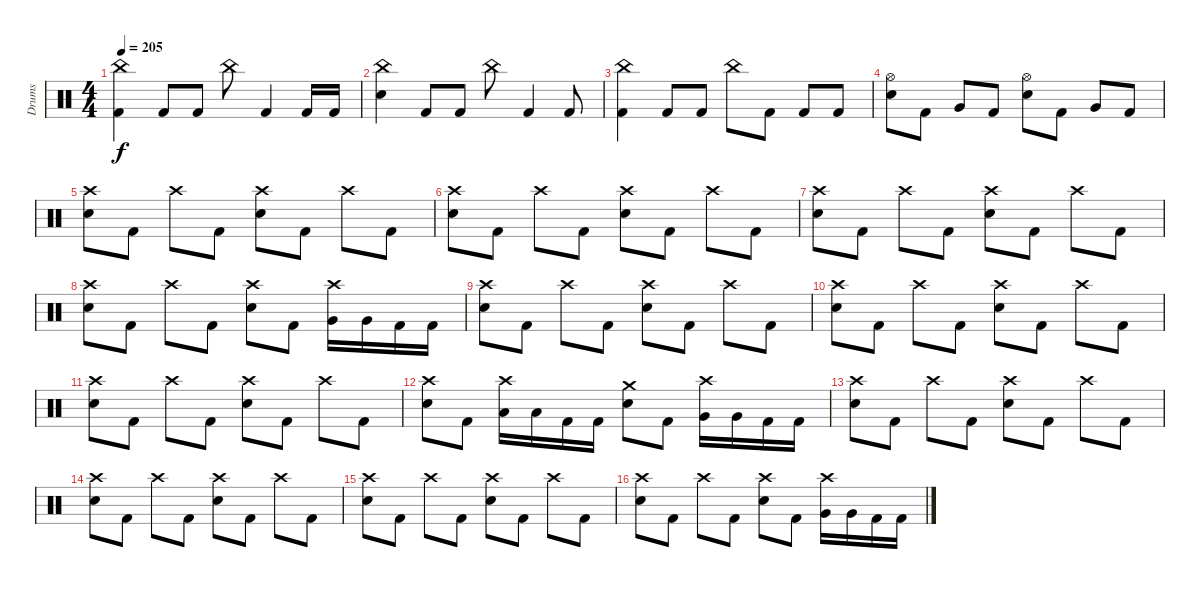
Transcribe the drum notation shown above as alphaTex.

\track ("Drums" "Drums") {instrument percussion}
\staff {score}
\articulation defaults
\ts (4 4)
\tempo 205
\clef neutral
\ks c
("China (hit)" "Kick (hit) 2").4{dy f} "Kick (hit) 2".8 "Kick (hit) 2".8 "China (hit)".8 "Kick (hit) 2".4 "Kick (hit) 2".16 "Kick (hit) 2".16 |
("China (hit)" "Electric Snare (hit)").4 "Kick (hit) 2".8 "Kick (hit) 2".8 "China (hit)".8 "Kick (hit) 2".4 "Kick (hit) 2".8 |
("China (hit)" "Kick (hit) 2").4 "Kick (hit) 2".8 "Kick (hit) 2".8 "China (hit)".8 "Kick (hit) 2".8 "Kick (hit) 2".8 "Kick (hit) 2".8 |
("Hi-Hat (open)" "Electric Snare (hit)").8 "Kick (hit) 2".8 "Very Low Tom (hit)".8 "Kick (hit) 2".8 ("Hi-Hat (open)" "Electric Snare (hit)").8 "Kick (hit) 2".8 "Very Low Tom (hit)".8 "Kick (hit) 2".8 |
("Crash high (hit)" "Electric Snare (hit)").8 "Kick (hit) 2".8 "Crash high (hit)".8 "Kick (hit) 2".8 ("Crash high (hit)" "Electric Snare (hit)").8 "Kick (hit) 2".8 "Crash high (hit)".8 "Kick (hit) 2".8 |
("Crash high (hit)" "Electric Snare (hit)").8 "Kick (hit) 2".8 "Crash high (hit)".8 "Kick (hit) 2".8 ("Crash high (hit)" "Electric Snare (hit)").8 "Kick (hit) 2".8 "Crash high (hit)".8 "Kick (hit) 2".8 |
("Crash high (hit)" "Electric Snare (hit)").8 "Kick (hit) 2".8 "Crash high (hit)".8 "Kick (hit) 2".8 ("Crash high (hit)" "Electric Snare (hit)").8 "Kick (hit) 2".8 "Crash high (hit)".8 "Kick (hit) 2".8 |
("Crash high (hit)" "Electric Snare (hit)").8 "Kick (hit) 2".8 "Crash high (hit)".8 "Kick (hit) 2".8 ("Crash high (hit)" "Electric Snare (hit)").8 "Kick (hit) 2".8 ("Crash high (hit)" "Very Low Tom (hit)").16 "Very Low Tom (hit)".16 "Kick (hit) 2".16 "Kick (hit) 2".16 |
("Crash high (hit)" "Electric Snare (hit)").8 "Kick (hit) 2".8 "Crash high (hit)".8 "Kick (hit) 2".8 ("Crash high (hit)" "Electric Snare (hit)").8 "Kick (hit) 2".8 "Crash high (hit)".8 "Kick (hit) 2".8 |
("Crash high (hit)" "Electric Snare (hit)").8 "Kick (hit) 2".8 "Crash high (hit)".8 "Kick (hit) 2".8 ("Crash high (hit)" "Electric Snare (hit)").8 "Kick (hit) 2".8 "Crash high (hit)".8 "Kick (hit) 2".8 |
("Crash high (hit)" "Electric Snare (hit)").8 "Kick (hit) 2".8 "Crash high (hit)".8 "Kick (hit) 2".8 ("Crash high (hit)" "Electric Snare (hit)").8 "Kick (hit) 2".8 "Crash high (hit)".8 "Kick (hit) 2".8 |
("Crash high (hit)" "Electric Snare (hit)").8 "Kick (hit) 2".8 ("Crash high (hit)" "Low Tom (hit)").16 "Low Tom (hit)".16 "Kick (hit) 2".16 "Kick (hit) 2".16 ("Crash medium (hit)" "Electric Snare (hit)").8 "Kick (hit) 2".8 ("Crash high (hit)" "Very Low Tom (hit)").16 "Very Low Tom (hit)".16 "Kick (hit) 2".16 "Kick (hit) 2".16 |
("Crash high (hit)" "Electric Snare (hit)").8 "Kick (hit) 2".8 "Crash high (hit)".8 "Kick (hit) 2".8 ("Crash high (hit)" "Electric Snare (hit)").8 "Kick (hit) 2".8 "Crash high (hit)".8 "Kick (hit) 2".8 |
("Crash high (hit)" "Electric Snare (hit)").8 "Kick (hit) 2".8 "Crash high (hit)".8 "Kick (hit) 2".8 ("Crash high (hit)" "Electric Snare (hit)").8 "Kick (hit) 2".8 "Crash high (hit)".8 "Kick (hit) 2".8 |
("Crash high (hit)" "Electric Snare (hit)").8 "Kick (hit) 2".8 "Crash high (hit)".8 "Kick (hit) 2".8 ("Crash high (hit)" "Electric Snare (hit)").8 "Kick (hit) 2".8 "Crash high (hit)".8 "Kick (hit) 2".8 |
("Crash high (hit)" "Electric Snare (hit)").8 "Kick (hit) 2".8 "Crash high (hit)".8 "Kick (hit) 2".8 ("Crash high (hit)" "Electric Snare (hit)").8 "Kick (hit) 2".8 ("Crash high (hit)" "Very Low Tom (hit)").16 "Very Low Tom (hit)".16 "Kick (hit) 2".16 "Kick (hit) 2".16
